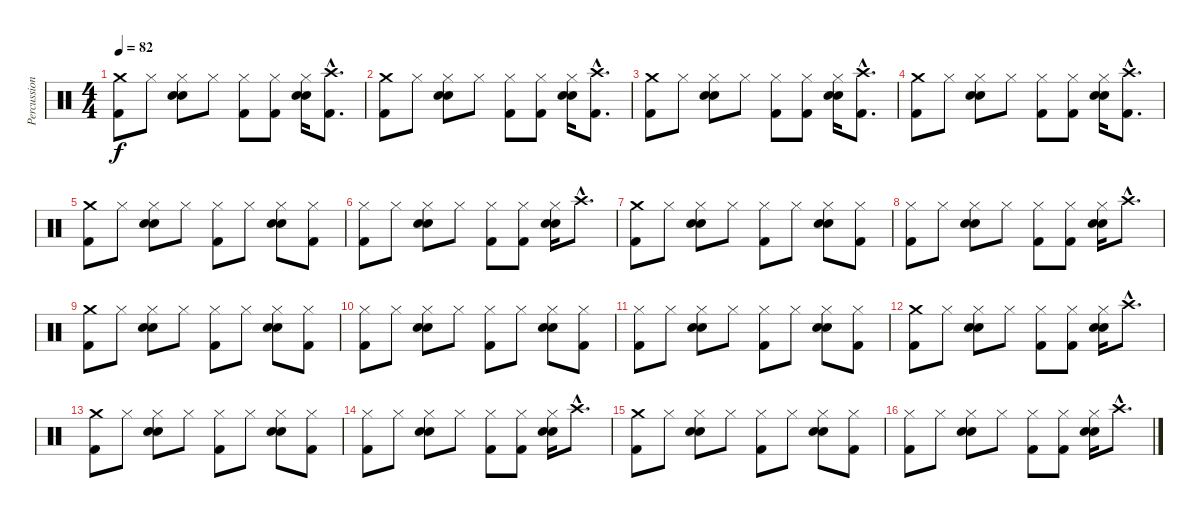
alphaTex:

\track ("Percussion" "Percussion") {instrument percussion}
\staff {score}
\articulation defaults
\ts (4 4)
\tempo 82
\clef neutral
\ks c
("Crash medium (hit)" "Kick (hit) 2").8{dy f} "Hi-Hat (closed)".8 ("Hi-Hat (closed)" "Snare (hit) 2" "Electric Snare (hit)").8 "Hi-Hat (closed)".8 ("Hi-Hat (closed)" "Kick (hit) 2").8 ("Hi-Hat (closed)" "Kick (hit) 2").8 ("Hi-Hat (closed)" "Snare (hit) 2" "Electric Snare (hit)").16 ("Crash high (hit)"{hac} "Kick (hit) 2"{hac}).8{d} |
("Crash medium (hit)" "Kick (hit) 2").8 "Hi-Hat (closed)".8 ("Hi-Hat (closed)" "Snare (hit) 2" "Electric Snare (hit)").8 "Hi-Hat (closed)".8 ("Hi-Hat (closed)" "Kick (hit) 2").8 ("Hi-Hat (closed)" "Kick (hit) 2").8 ("Hi-Hat (closed)" "Snare (hit) 2" "Electric Snare (hit)").16 ("Crash high (hit)"{hac} "Kick (hit) 2"{hac}).8{d} |
("Crash medium (hit)" "Kick (hit) 2").8 "Hi-Hat (closed)".8 ("Hi-Hat (closed)" "Snare (hit) 2" "Electric Snare (hit)").8 "Hi-Hat (closed)".8 ("Hi-Hat (closed)" "Kick (hit) 2").8 ("Hi-Hat (closed)" "Kick (hit) 2").8 ("Hi-Hat (closed)" "Snare (hit) 2" "Electric Snare (hit)").16 ("Crash high (hit)"{hac} "Kick (hit) 2"{hac}).8{d} |
("Crash medium (hit)" "Kick (hit) 2").8 "Hi-Hat (closed)".8 ("Hi-Hat (closed)" "Snare (hit) 2" "Electric Snare (hit)").8 "Hi-Hat (closed)".8 ("Hi-Hat (closed)" "Kick (hit) 2").8 ("Hi-Hat (closed)" "Kick (hit) 2").8 ("Hi-Hat (closed)" "Snare (hit) 2" "Electric Snare (hit)").16 ("Crash high (hit)"{hac} "Kick (hit) 2"{hac}).8{d} |
("Crash medium (hit)" "Kick (hit) 2").8 "Hi-Hat (closed)".8 ("Hi-Hat (closed)" "Snare (hit) 2" "Electric Snare (hit)").8 "Hi-Hat (closed)".8 ("Hi-Hat (closed)" "Kick (hit) 2").8 "Hi-Hat (closed)".8 ("Hi-Hat (closed)" "Snare (hit) 2" "Electric Snare (hit)").8 ("Hi-Hat (closed)" "Kick (hit) 2").8 |
("Hi-Hat (closed)" "Kick (hit) 2").8 "Hi-Hat (closed)".8 ("Hi-Hat (closed)" "Snare (hit) 2" "Electric Snare (hit)").8 "Hi-Hat (closed)".8 ("Hi-Hat (closed)" "Kick (hit) 2").8 ("Hi-Hat (closed)" "Kick (hit) 2").8 ("Hi-Hat (closed)" "Snare (hit) 2" "Electric Snare (hit)").16 "Crash high (hit)"{hac}.8{d} |
("Crash medium (hit)" "Kick (hit) 2").8 "Hi-Hat (closed)".8 ("Hi-Hat (closed)" "Snare (hit) 2" "Electric Snare (hit)").8 "Hi-Hat (closed)".8 ("Hi-Hat (closed)" "Kick (hit) 2").8 "Hi-Hat (closed)".8 ("Hi-Hat (closed)" "Snare (hit) 2" "Electric Snare (hit)").8 ("Hi-Hat (closed)" "Kick (hit) 2").8 |
("Hi-Hat (closed)" "Kick (hit) 2").8 "Hi-Hat (closed)".8 ("Hi-Hat (closed)" "Snare (hit) 2" "Electric Snare (hit)").8 "Hi-Hat (closed)".8 ("Hi-Hat (closed)" "Kick (hit) 2").8 ("Hi-Hat (closed)" "Kick (hit) 2").8 ("Hi-Hat (closed)" "Snare (hit) 2" "Electric Snare (hit)").16 "Crash high (hit)"{hac}.8{d} |
("Crash medium (hit)" "Kick (hit) 2").8 "Hi-Hat (closed)".8 ("Hi-Hat (closed)" "Snare (hit) 2" "Electric Snare (hit)").8 "Hi-Hat (closed)".8 ("Hi-Hat (closed)" "Kick (hit) 2").8 "Hi-Hat (closed)".8 ("Hi-Hat (closed)" "Snare (hit) 2" "Electric Snare (hit)").8 ("Hi-Hat (closed)" "Kick (hit) 2").8 |
("Hi-Hat (closed)" "Kick (hit) 2").8 "Hi-Hat (closed)".8 ("Hi-Hat (closed)" "Snare (hit) 2" "Electric Snare (hit)").8 "Hi-Hat (closed)".8 ("Hi-Hat (closed)" "Kick (hit) 2").8 "Hi-Hat (closed)".8 ("Hi-Hat (closed)" "Snare (hit) 2" "Electric Snare (hit)").8 ("Hi-Hat (closed)" "Kick (hit) 2").8 |
("Hi-Hat (closed)" "Kick (hit) 2").8 "Hi-Hat (closed)".8 ("Hi-Hat (closed)" "Snare (hit) 2" "Electric Snare (hit)").8 "Hi-Hat (closed)".8 ("Hi-Hat (closed)" "Kick (hit) 2").8 "Hi-Hat (closed)".8 ("Hi-Hat (closed)" "Snare (hit) 2" "Electric Snare (hit)").8 ("Hi-Hat (closed)" "Kick (hit) 2").8 |
("Crash medium (hit)" "Kick (hit) 2").8 "Hi-Hat (closed)".8 ("Hi-Hat (closed)" "Snare (hit) 2" "Electric Snare (hit)").8 "Hi-Hat (closed)".8 ("Hi-Hat (closed)" "Kick (hit) 2").8 ("Hi-Hat (closed)" "Kick (hit) 2").8 ("Hi-Hat (closed)" "Snare (hit) 2" "Electric Snare (hit)").16 "Crash high (hit)"{hac}.8{d} |
("Crash medium (hit)" "Kick (hit) 2").8 "Hi-Hat (closed)".8 ("Hi-Hat (closed)" "Snare (hit) 2" "Electric Snare (hit)").8 "Hi-Hat (closed)".8 ("Hi-Hat (closed)" "Kick (hit) 2").8 "Hi-Hat (closed)".8 ("Hi-Hat (closed)" "Snare (hit) 2" "Electric Snare (hit)").8 ("Hi-Hat (closed)" "Kick (hit) 2").8 |
("Hi-Hat (closed)" "Kick (hit) 2").8 "Hi-Hat (closed)".8 ("Hi-Hat (closed)" "Snare (hit) 2" "Electric Snare (hit)").8 "Hi-Hat (closed)".8 ("Hi-Hat (closed)" "Kick (hit) 2").8 ("Hi-Hat (closed)" "Kick (hit) 2").8 ("Hi-Hat (closed)" "Snare (hit) 2" "Electric Snare (hit)").16 "Crash high (hit)"{hac}.8{d} |
("Crash medium (hit)" "Kick (hit) 2").8 "Hi-Hat (closed)".8 ("Hi-Hat (closed)" "Snare (hit) 2" "Electric Snare (hit)").8 "Hi-Hat (closed)".8 ("Hi-Hat (closed)" "Kick (hit) 2").8 "Hi-Hat (closed)".8 ("Hi-Hat (closed)" "Snare (hit) 2" "Electric Snare (hit)").8 ("Hi-Hat (closed)" "Kick (hit) 2").8 |
("Hi-Hat (closed)" "Kick (hit) 2").8 "Hi-Hat (closed)".8 ("Hi-Hat (closed)" "Snare (hit) 2" "Electric Snare (hit)").8 "Hi-Hat (closed)".8 ("Hi-Hat (closed)" "Kick (hit) 2").8 ("Hi-Hat (closed)" "Kick (hit) 2").8 ("Hi-Hat (closed)" "Snare (hit) 2" "Electric Snare (hit)").16 "Crash high (hit)"{hac}.8{d}
